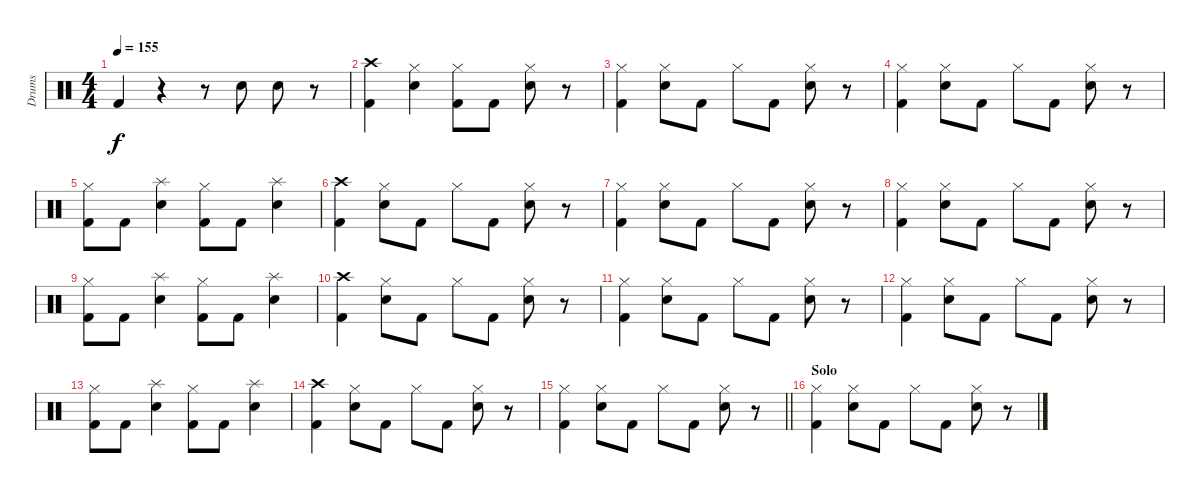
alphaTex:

\track ("Drums" "Drums") {instrument percussion}
\staff {score}
\articulation defaults
\ts (4 4)
\tempo 155
\clef neutral
\ks c "Kick (hit) 2".4{dy f}
r.4 r.8 "Snare (hit) 2".8 "Snare (hit) 2".8 r.8 |
("Crash high (hit)" "Kick (hit) 2").4 ("Hi-Hat (closed)" "Snare (hit) 2").4 ("Hi-Hat (closed)" "Kick (hit) 2").8 "Kick (hit) 2".8 ("Hi-Hat (closed)" "Snare (hit) 2").8 r.8 |
("Hi-Hat (closed)" "Kick (hit) 2").4 ("Hi-Hat (closed)" "Snare (hit) 2").8 "Kick (hit) 2".8 "Hi-Hat (closed)".8 "Kick (hit) 2".8 ("Hi-Hat (closed)" "Snare (hit) 2").8 r.8 |
("Hi-Hat (closed)" "Kick (hit) 2").4 ("Hi-Hat (closed)" "Snare (hit) 2").8 "Kick (hit) 2".8 "Hi-Hat (closed)".8 "Kick (hit) 2".8 ("Hi-Hat (closed)" "Snare (hit) 2").8 r.8 |
("Hi-Hat (closed)" "Kick (hit) 2").8 "Kick (hit) 2".8 ("Splash (hit)" "Snare (hit) 2").4 ("Hi-Hat (closed)" "Kick (hit) 2").8 "Kick (hit) 2".8 ("Splash (hit)" "Snare (hit) 2").4 |
("Crash high (hit)" "Kick (hit) 2").4 ("Hi-Hat (closed)" "Snare (hit) 2").8 "Kick (hit) 2".8 "Hi-Hat (closed)".8 "Kick (hit) 2".8 ("Hi-Hat (closed)" "Snare (hit) 2").8 r.8 |
("Hi-Hat (closed)" "Kick (hit) 2").4 ("Hi-Hat (closed)" "Snare (hit) 2").8 "Kick (hit) 2".8 "Hi-Hat (closed)".8 "Kick (hit) 2".8 ("Hi-Hat (closed)" "Snare (hit) 2").8 r.8 |
("Hi-Hat (closed)" "Kick (hit) 2").4 ("Hi-Hat (closed)" "Snare (hit) 2").8 "Kick (hit) 2".8 "Hi-Hat (closed)".8 "Kick (hit) 2".8 ("Hi-Hat (closed)" "Snare (hit) 2").8 r.8 |
("Hi-Hat (closed)" "Kick (hit) 2").8 "Kick (hit) 2".8 ("Splash (hit)" "Snare (hit) 2").4 ("Hi-Hat (closed)" "Kick (hit) 2").8 "Kick (hit) 2".8 ("Splash (hit)" "Snare (hit) 2").4 |
("Crash high (hit)" "Kick (hit) 2").4 ("Hi-Hat (closed)" "Snare (hit) 2").8 "Kick (hit) 2".8 "Hi-Hat (closed)".8 "Kick (hit) 2".8 ("Hi-Hat (closed)" "Snare (hit) 2").8 r.8 |
("Hi-Hat (closed)" "Kick (hit) 2").4 ("Hi-Hat (closed)" "Snare (hit) 2").8 "Kick (hit) 2".8 "Hi-Hat (closed)".8 "Kick (hit) 2".8 ("Hi-Hat (closed)" "Snare (hit) 2").8 r.8 |
("Hi-Hat (closed)" "Kick (hit) 2").4 ("Hi-Hat (closed)" "Snare (hit) 2").8 "Kick (hit) 2".8 "Hi-Hat (closed)".8 "Kick (hit) 2".8 ("Hi-Hat (closed)" "Snare (hit) 2").8 r.8 |
("Hi-Hat (closed)" "Kick (hit) 2").8 "Kick (hit) 2".8 ("Splash (hit)" "Snare (hit) 2").4 ("Hi-Hat (closed)" "Kick (hit) 2").8 "Kick (hit) 2".8 ("Splash (hit)" "Snare (hit) 2").4 |
("Crash high (hit)" "Kick (hit) 2").4 ("Hi-Hat (closed)" "Snare (hit) 2").8 "Kick (hit) 2".8 "Hi-Hat (closed)".8 "Kick (hit) 2".8 ("Hi-Hat (closed)" "Snare (hit) 2").8 r.8 |
\barLineRight lightlight
("Hi-Hat (closed)" "Kick (hit) 2").4 ("Hi-Hat (closed)" "Snare (hit) 2").8 "Kick (hit) 2".8 "Hi-Hat (closed)".8 "Kick (hit) 2".8 ("Hi-Hat (closed)" "Snare (hit) 2").8 r.8 |
\section ("" "Solo")
("Hi-Hat (closed)" "Kick (hit) 2").4 ("Hi-Hat (closed)" "Snare (hit) 2").8 "Kick (hit) 2".8 "Hi-Hat (closed)".8 "Kick (hit) 2".8 ("Hi-Hat (closed)" "Snare (hit) 2").8 r.8
